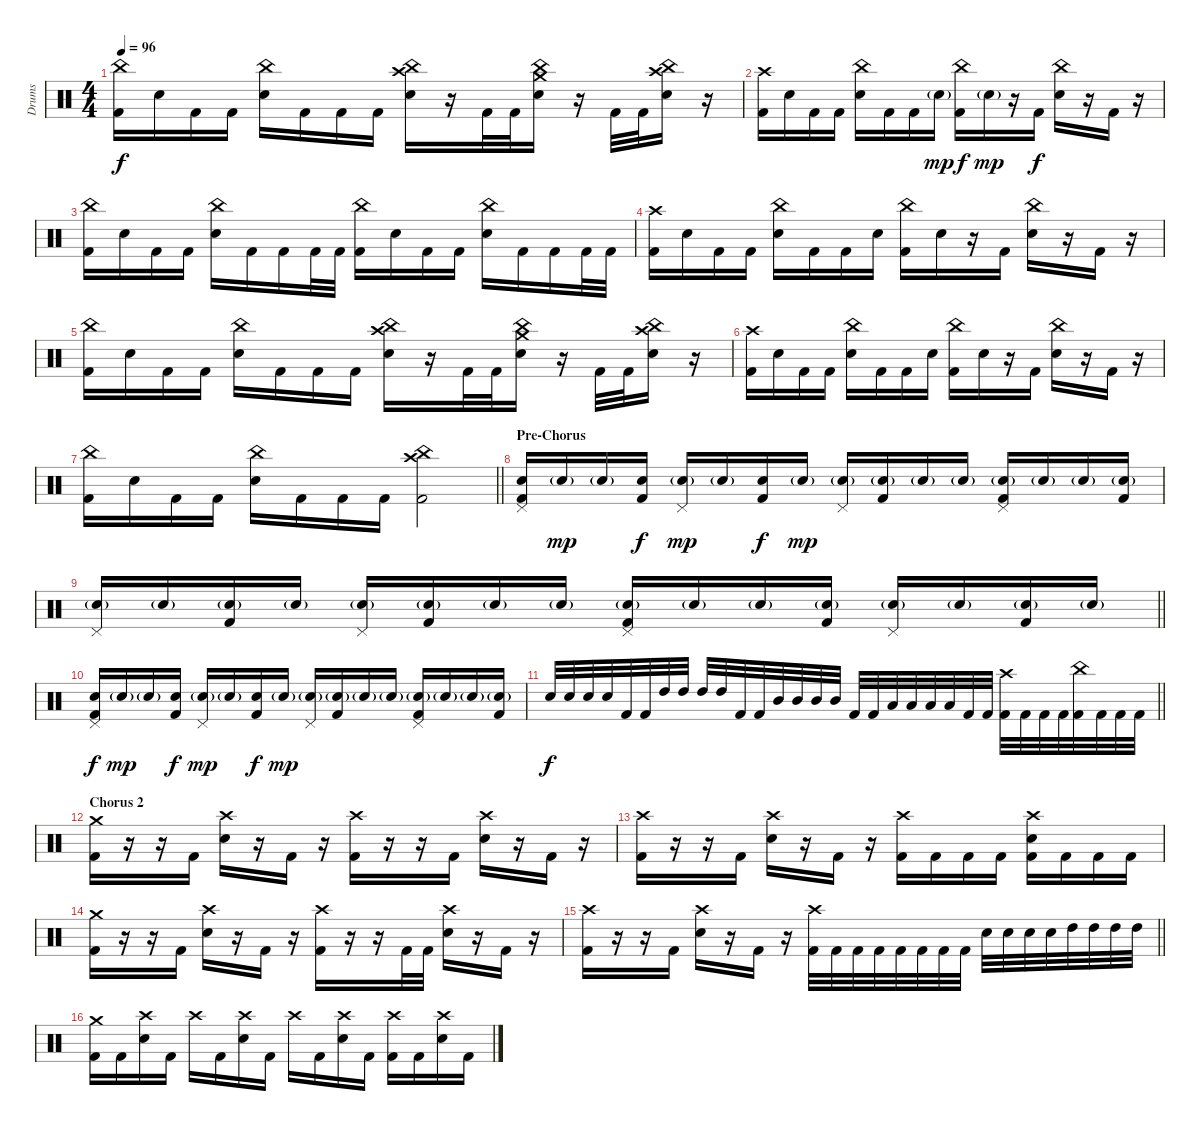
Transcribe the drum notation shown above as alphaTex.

\track ("Drums" "Drums") {instrument percussion}
\staff {score}
\articulation defaults
\ts (4 4)
\tempo 96
\clef neutral
\ks c
("China (hit)" "Kick (hit) 2").16{dy f} "Snare (hit) 2".16 "Kick (hit) 2".16 "Kick (hit) 2".16 ("China (hit)" "Snare (hit) 2").16 "Kick (hit) 2".16 "Kick (hit) 2".16 "Kick (hit) 2".16 ("China (hit)" "Crash high (hit)" "Snare (hit) 2").16 r.16 "Kick (hit) 2".32 "Kick (hit) 2".32 ("China (hit)" "Crash medium (hit)" "Snare (hit) 2").16 r.16 "Kick (hit) 2".32 "Kick (hit) 2".32 ("China (hit)" "Crash high (hit)" "Snare (hit) 2").16 r.16 |
("Crash high (hit)" "Kick (hit) 2").16 "Snare (hit) 2".16 "Kick (hit) 2".16 "Kick (hit) 2".16 ("China (hit)" "Snare (hit) 2").16 "Kick (hit) 2".16 "Kick (hit) 2".16 "Snare (hit) 2"{g}.16{dy mp} ("China (hit)" "Kick (hit) 2").16{dy f} "Snare (hit) 2"{g}.16{dy mp} r.16 "Kick (hit) 2".16{dy f} ("China (hit)" "Snare (hit) 2").16 r.16 "Kick (hit) 2".16 r.16 |
("China (hit)" "Kick (hit) 2").16 "Snare (hit) 2".16 "Kick (hit) 2".16 "Kick (hit) 2".16 ("China (hit)" "Snare (hit) 2").16 "Kick (hit) 2".16 "Kick (hit) 2".16 "Kick (hit) 2".32 "Kick (hit) 2".32 ("China (hit)" "Kick (hit) 2").16 "Snare (hit) 2".16 "Kick (hit) 2".16 "Kick (hit) 2".16 ("China (hit)" "Snare (hit) 2").16 "Kick (hit) 2".16 "Kick (hit) 2".16 "Kick (hit) 2".32 "Kick (hit) 2".32 |
("Crash high (hit)" "Kick (hit) 2").16 "Snare (hit) 2".16 "Kick (hit) 2".16 "Kick (hit) 2".16 ("China (hit)" "Snare (hit) 2").16 "Kick (hit) 2".16 "Kick (hit) 2".16 "Snare (hit) 2".16 ("China (hit)" "Kick (hit) 2").16 "Snare (hit) 2".16 r.16 "Kick (hit) 2".16 ("China (hit)" "Snare (hit) 2").16 r.16 "Kick (hit) 2".16 r.16 |
("China (hit)" "Kick (hit) 2").16 "Snare (hit) 2".16 "Kick (hit) 2".16 "Kick (hit) 2".16 ("China (hit)" "Snare (hit) 2").16 "Kick (hit) 2".16 "Kick (hit) 2".16 "Kick (hit) 2".16 ("China (hit)" "Crash high (hit)" "Snare (hit) 2").16 r.16 "Kick (hit) 2".32 "Kick (hit) 2".32 ("China (hit)" "Crash medium (hit)" "Snare (hit) 2").16 r.16 "Kick (hit) 2".32 "Kick (hit) 2".32 ("China (hit)" "Crash high (hit)" "Snare (hit) 2").16 r.16 |
("Crash high (hit)" "Kick (hit) 2").16 "Snare (hit) 2".16 "Kick (hit) 2".16 "Kick (hit) 2".16 ("China (hit)" "Snare (hit) 2").16 "Kick (hit) 2".16 "Kick (hit) 2".16 "Snare (hit) 2".16 ("China (hit)" "Kick (hit) 2").16 "Snare (hit) 2".16 r.16 "Kick (hit) 2".16 ("China (hit)" "Snare (hit) 2").16 r.16 "Kick (hit) 2".16 r.16 |
\barLineRight lightlight
("China (hit)" "Kick (hit) 2").16 "Snare (hit) 2".16 "Kick (hit) 2".16 "Kick (hit) 2".16 ("China (hit)" "Snare (hit) 2").16 "Kick (hit) 2".16 "Kick (hit) 2".16 "Kick (hit) 2".16 ("China (hit)" "Crash high (hit)" "Kick (hit) 2").2 |
\section ("" "Pre-Chorus")
("Pedal Hi-Hat (hit)" "Snare (hit) 2" "Kick (hit) 2").16 "Snare (hit) 2"{g}.16{dy mp} "Snare (hit) 2"{g}.16 ("Snare (hit) 2" "Kick (hit) 2").16{dy f} ("Pedal Hi-Hat (hit)" "Snare (hit) 2"{g}).16{dy mp} "Snare (hit) 2"{g}.16 ("Snare (hit) 2" "Kick (hit) 2").16{dy f} "Snare (hit) 2"{g}.16{dy mp} ("Pedal Hi-Hat (hit)" "Snare (hit) 2"{g}).16 ("Snare (hit) 2"{g} "Kick (hit) 2").16 "Snare (hit) 2"{g}.16 "Snare (hit) 2"{g}.16 ("Pedal Hi-Hat (hit)" "Snare (hit) 2"{g} "Kick (hit) 2").16 "Snare (hit) 2"{g}.16 "Snare (hit) 2"{g}.16 ("Snare (hit) 2"{g} "Kick (hit) 2").16 |
\barLineRight lightlight
("Pedal Hi-Hat (hit)" "Snare (hit) 2"{g}).16 "Snare (hit) 2"{g}.16 ("Snare (hit) 2"{g} "Kick (hit) 2").16 "Snare (hit) 2"{g}.16 ("Pedal Hi-Hat (hit)" "Snare (hit) 2"{g}).16 ("Snare (hit) 2"{g} "Kick (hit) 2").16 "Snare (hit) 2"{g}.16 "Snare (hit) 2"{g}.16 ("Pedal Hi-Hat (hit)" "Snare (hit) 2"{g} "Kick (hit) 2").16 "Snare (hit) 2"{g}.16 "Snare (hit) 2"{g}.16 ("Snare (hit) 2"{g} "Kick (hit) 2").16 ("Pedal Hi-Hat (hit)" "Snare (hit) 2"{g}).16 "Snare (hit) 2"{g}.16 ("Snare (hit) 2"{g} "Kick (hit) 2").16 "Snare (hit) 2"{g}.16 |
("Pedal Hi-Hat (hit)" "Snare (hit) 2" "Kick (hit) 2").16{dy f} "Snare (hit) 2"{g}.16{dy mp} "Snare (hit) 2"{g}.16 ("Snare (hit) 2" "Kick (hit) 2").16{dy f} ("Pedal Hi-Hat (hit)" "Snare (hit) 2"{g}).16{dy mp} "Snare (hit) 2"{g}.16 ("Snare (hit) 2" "Kick (hit) 2").16{dy f} "Snare (hit) 2"{g}.16{dy mp} ("Pedal Hi-Hat (hit)" "Snare (hit) 2"{g}).16 ("Snare (hit) 2"{g} "Kick (hit) 2").16 "Snare (hit) 2"{g}.16 "Snare (hit) 2"{g}.16 ("Pedal Hi-Hat (hit)" "Snare (hit) 2"{g} "Kick (hit) 2").16 "Snare (hit) 2"{g}.16 "Snare (hit) 2"{g}.16 ("Snare (hit) 2"{g} "Kick (hit) 2").16 |
\barLineRight lightlight "Snare (hit) 2".32{dy f} "Snare (hit) 2".32 "Snare (hit) 2".32 "Snare (hit) 2".32 "Kick (hit) 2".32 "Kick (hit) 2".32 "High Tom (hit)".32 "High Tom (hit)".32 "High Tom (hit)".32 "High Tom (hit)".32 "Kick (hit) 2".32 "Kick (hit) 2".32 "Mid Tom (hit)".32 "Mid Tom (hit)".32 "Mid Tom (hit)".32 "Mid Tom (hit)".32 "Kick (hit) 2".32 "Kick (hit) 2".32 "Low Tom (hit)".32 "Low Tom (hit)".32 "Low Tom (hit)".32 "Low Tom (hit)".32 "Kick (hit) 2".32 "Kick (hit) 2".32
("Crash high (hit)" "Kick (hit) 2").32 "Kick (hit) 2".32 "Kick (hit) 2".32 "Kick (hit) 2".32 ("China (hit)" "Kick (hit) 2").32 "Kick (hit) 2".32 "Kick (hit) 2".32 "Kick (hit) 2".32 |
\section ("" "Chorus 2")
("Crash medium (hit)" "Kick (hit) 2").16 r.16 r.16 "Kick (hit) 2".16 ("Crash high (hit)" "Snare (hit) 2").16 r.16 "Kick (hit) 2".16 r.16 ("Crash high (hit)" "Kick (hit) 2").16 r.16 r.16 "Kick (hit) 2".16 ("Crash high (hit)" "Snare (hit) 2").16 r.16 "Kick (hit) 2".16 r.16 |
("Crash high (hit)" "Kick (hit) 2").16 r.16 r.16 "Kick (hit) 2".16 ("Crash high (hit)" "Snare (hit) 2").16 r.16 "Kick (hit) 2".16 r.16 ("Crash high (hit)" "Kick (hit) 2").16 "Kick (hit) 2".16 "Kick (hit) 2".16 "Kick (hit) 2".16 ("Crash high (hit)" "Snare (hit) 2" "Kick (hit) 2").16 "Kick (hit) 2".16 "Kick (hit) 2".16 "Kick (hit) 2".16 |
("Crash medium (hit)" "Kick (hit) 2").16 r.16 r.16 "Kick (hit) 2".16 ("Crash high (hit)" "Snare (hit) 2").16 r.16 "Kick (hit) 2".16 r.16 ("Crash high (hit)" "Kick (hit) 2").16 r.16 r.16 "Kick (hit) 2".32 "Kick (hit) 2".32 ("Crash high (hit)" "Snare (hit) 2").16 r.16 "Kick (hit) 2".16 r.16 |
\barLineRight lightlight
("Crash high (hit)" "Kick (hit) 2").16 r.16 r.16 "Kick (hit) 2".16 ("Crash high (hit)" "Snare (hit) 2").16 r.16 "Kick (hit) 2".16 r.16 ("Crash high (hit)" "Kick (hit) 2").32 "Kick (hit) 2".32 "Kick (hit) 2".32 "Kick (hit) 2".32 "Kick (hit) 2".32 "Kick (hit) 2".32 "Kick (hit) 2".32 "Kick (hit) 2".32 "Snare (hit) 2".32 "Snare (hit) 2".32 "Snare (hit) 2".32 "Snare (hit) 2".32 "High Tom (hit)".32 "High Tom (hit)".32 "High Tom (hit)".32 "High Tom (hit)".32 |
("Crash medium (hit)" "Kick (hit) 2").16 "Kick (hit) 2".16 ("Crash high (hit)" "Snare (hit) 2").16 "Kick (hit) 2".16 "Crash high (hit)".16 "Kick (hit) 2".16 ("Crash high (hit)" "Snare (hit) 2").16 "Kick (hit) 2".16 "Crash high (hit)".16 "Kick (hit) 2".16 ("Crash high (hit)" "Snare (hit) 2").16 "Kick (hit) 2".16 ("Crash high (hit)" "Kick (hit) 2").16 "Kick (hit) 2".16 ("Crash high (hit)" "Snare (hit) 2").16 "Kick (hit) 2".16
